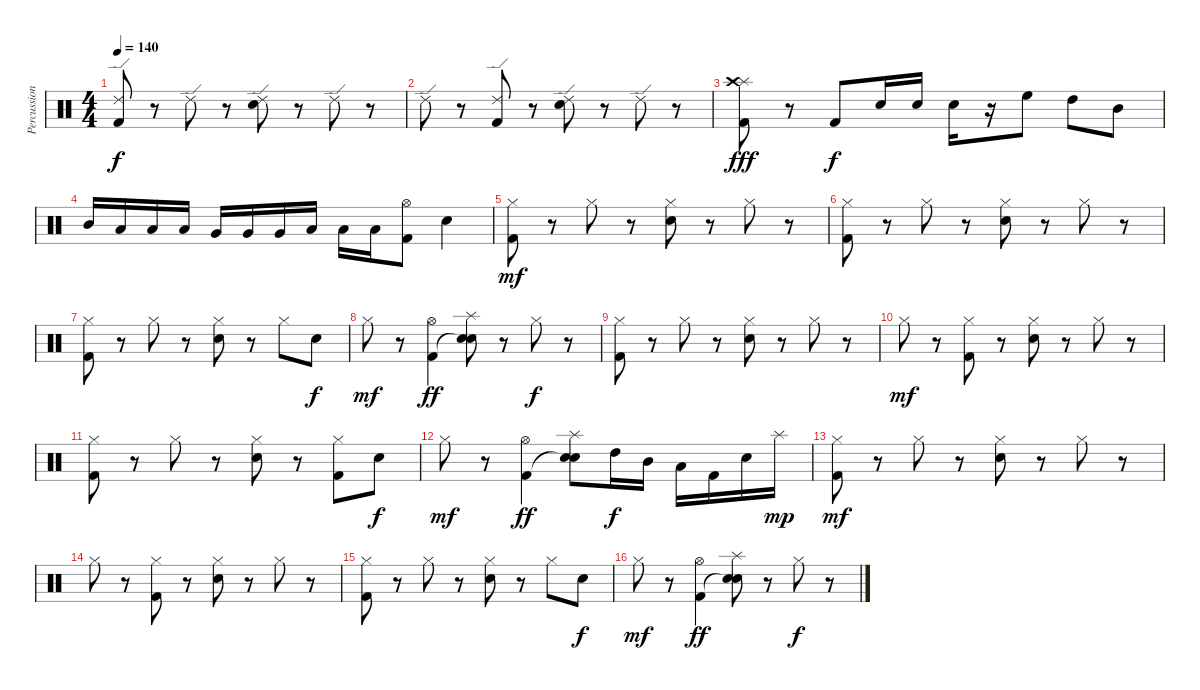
\track ("Percussion" "Percussion") {instrument percussion}
\staff {score}
\articulation defaults
\ts (4 4)
\tempo 140
\clef neutral
\ks c
("Ride (edge) 2" "Kick (hit) 2").8{dy f} r.8 "Ride (edge) 2".8 r.8 ("Ride (edge) 2" "Electric Snare (hit)").8 r.8 "Ride (edge) 2".8 r.8 |
"Ride (edge) 2".8 r.8 ("Ride (edge) 2" "Kick (hit) 2").8 r.8 ("Ride (edge) 2" "Electric Snare (hit)").8 r.8 "Ride (edge) 2".8 r.8 |
("Splash (hit)" "Crash high (hit)" "Kick (hit) 2").8{dy fff} r.8 "Kick (hit) 2".8{dy f} "Electric Snare (hit)".16 "Electric Snare (hit)".16 "Electric Snare (hit)".16 r.16 "High Floor Tom (hit)".8 "High Tom (hit)".8 "Mid Tom (hit)".8 |
"Mid Tom (hit)".16 "Low Tom (hit)".16 "Low Tom (hit)".16 "Low Tom (hit)".16 "Very Low Tom (hit)".16 "Very Low Tom (hit)".16 "Very Low Tom (hit)".16 "Low Floor Tom (hit)".16 "Low Floor Tom (hit)".16 "Low Floor Tom (hit)".16 ("Hi-Hat (open)" "Kick (hit) 2").8 "Electric Snare (hit)".4 |
("Hi-Hat (closed)" "Kick (hit) 2").8{dy mf} r.8 "Hi-Hat (closed)".8 r.8 ("Hi-Hat (closed)" "Electric Snare (hit)").8 r.8 "Hi-Hat (closed)".8 r.8 |
("Hi-Hat (closed)" "Kick (hit) 2").8 r.8 "Hi-Hat (closed)".8 r.8 ("Hi-Hat (closed)" "Electric Snare (hit)").8 r.8 "Hi-Hat (closed)".8 r.8 |
("Hi-Hat (closed)" "Kick (hit) 2").8 r.8 "Hi-Hat (closed)".8 r.8 ("Hi-Hat (closed)" "Electric Snare (hit)").8 r.8 "Hi-Hat (closed)".8 "Electric Snare (hit)".8{dy f} |
"Hi-Hat (closed)".8{dy mf} r.8 ("Hi-Hat (open)" "Kick (hit) 2").4{dy ff} ("Splash (hit)" "Electric Snare (hit)"{t} "Electric Snare (hit)").8 r.8 "Hi-Hat (closed)".8{dy f} r.8 |
("Hi-Hat (closed)" "Kick (hit) 2").8 r.8 "Hi-Hat (closed)".8 r.8 ("Hi-Hat (closed)" "Electric Snare (hit)").8 r.8 "Hi-Hat (closed)".8 r.8 |
"Hi-Hat (closed)".8{dy mf} r.8 ("Hi-Hat (closed)" "Kick (hit) 2").8 r.8 ("Hi-Hat (closed)" "Electric Snare (hit)").8 r.8 "Hi-Hat (closed)".8 r.8 |
("Hi-Hat (closed)" "Kick (hit) 2").8 r.8 "Hi-Hat (closed)".8 r.8 ("Hi-Hat (closed)" "Electric Snare (hit)").8 r.8 ("Hi-Hat (closed)" "Kick (hit) 2").8 "Electric Snare (hit)".8{dy f} |
"Hi-Hat (closed)".8{dy mf} r.8 ("Hi-Hat (open)" "Kick (hit) 2").4{dy ff} ("Splash (hit)" "Electric Snare (hit)"{t} "Electric Snare (hit)").8 "High Tom (hit)".16{dy f} "Mid Tom (hit)".16 "Low Tom (hit)".16 "Kick (hit) 2".16 "Electric Snare (hit)".16 "Splash (hit)".16{dy mp} |
("Hi-Hat (closed)" "Kick (hit) 2").8{dy mf} r.8 "Hi-Hat (closed)".8 r.8 ("Hi-Hat (closed)" "Electric Snare (hit)").8 r.8 "Hi-Hat (closed)".8 r.8 |
"Hi-Hat (closed)".8 r.8 ("Hi-Hat (closed)" "Kick (hit) 2").8 r.8 ("Hi-Hat (closed)" "Electric Snare (hit)").8 r.8 "Hi-Hat (closed)".8 r.8 |
("Hi-Hat (closed)" "Kick (hit) 2").8 r.8 "Hi-Hat (closed)".8 r.8 ("Hi-Hat (closed)" "Electric Snare (hit)").8 r.8 "Hi-Hat (closed)".8 "Electric Snare (hit)".8{dy f} |
"Hi-Hat (closed)".8{dy mf} r.8 ("Hi-Hat (open)" "Kick (hit) 2").4{dy ff} ("Splash (hit)" "Electric Snare (hit)"{t} "Electric Snare (hit)").8 r.8 "Hi-Hat (closed)".8{dy f} r.8
